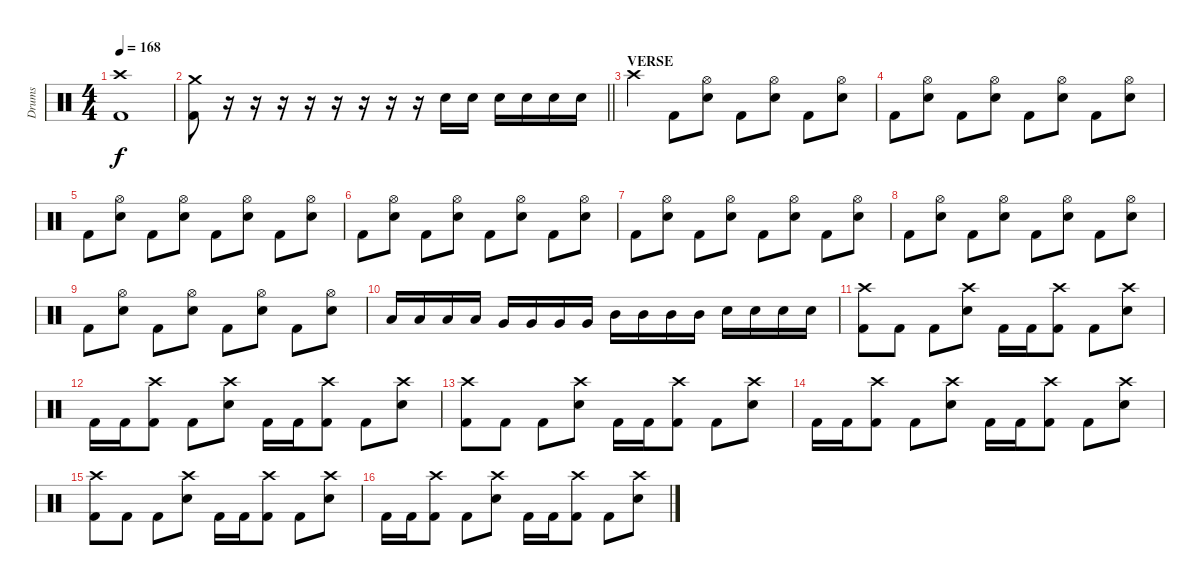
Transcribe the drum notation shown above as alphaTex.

\track ("Drums" "Drums") {instrument percussion}
\staff {score}
\articulation defaults
\ts (4 4)
\tempo 168
\clef neutral
\ks c
("Crash high (hit)" "Kick (hit) 2").1{dy f} |
\barLineRight lightlight
("Crash medium (hit)" "Kick (hit) 2").8 r.16 r.16 r.16 r.16 r.16 r.16 r.16 r.16 "Snare (hit) 2".16 "Snare (hit) 2".16 "Snare (hit) 2".16 "Snare (hit) 2".16 "Snare (hit) 2".16 "Snare (hit) 2".16 |
\section ("" "VERSE")
"Crash high (hit)".4 "Kick (hit) 2".8 ("Hi-Hat (open)" "Snare (hit) 2").8 "Kick (hit) 2".8 ("Hi-Hat (open)" "Snare (hit) 2").8 "Kick (hit) 2".8 ("Hi-Hat (open)" "Snare (hit) 2").8 |
"Kick (hit) 2".8 ("Hi-Hat (open)" "Snare (hit) 2").8 "Kick (hit) 2".8 ("Hi-Hat (open)" "Snare (hit) 2").8 "Kick (hit) 2".8 ("Hi-Hat (open)" "Snare (hit) 2").8 "Kick (hit) 2".8 ("Hi-Hat (open)" "Snare (hit) 2").8 |
"Kick (hit) 2".8 ("Hi-Hat (open)" "Snare (hit) 2").8 "Kick (hit) 2".8 ("Hi-Hat (open)" "Snare (hit) 2").8 "Kick (hit) 2".8 ("Hi-Hat (open)" "Snare (hit) 2").8 "Kick (hit) 2".8 ("Hi-Hat (open)" "Snare (hit) 2").8 |
"Kick (hit) 2".8 ("Hi-Hat (open)" "Snare (hit) 2").8 "Kick (hit) 2".8 ("Hi-Hat (open)" "Snare (hit) 2").8 "Kick (hit) 2".8 ("Hi-Hat (open)" "Snare (hit) 2").8 "Kick (hit) 2".8 ("Hi-Hat (open)" "Snare (hit) 2").8 |
"Kick (hit) 2".8 ("Hi-Hat (open)" "Snare (hit) 2").8 "Kick (hit) 2".8 ("Hi-Hat (open)" "Snare (hit) 2").8 "Kick (hit) 2".8 ("Hi-Hat (open)" "Snare (hit) 2").8 "Kick (hit) 2".8 ("Hi-Hat (open)" "Snare (hit) 2").8 |
"Kick (hit) 2".8 ("Hi-Hat (open)" "Snare (hit) 2").8 "Kick (hit) 2".8 ("Hi-Hat (open)" "Snare (hit) 2").8 "Kick (hit) 2".8 ("Hi-Hat (open)" "Snare (hit) 2").8 "Kick (hit) 2".8 ("Hi-Hat (open)" "Snare (hit) 2").8 |
"Kick (hit) 2".8 ("Hi-Hat (open)" "Snare (hit) 2").8 "Kick (hit) 2".8 ("Hi-Hat (open)" "Snare (hit) 2").8 "Kick (hit) 2".8 ("Hi-Hat (open)" "Snare (hit) 2").8 "Kick (hit) 2".8 ("Hi-Hat (open)" "Snare (hit) 2").8 |
"Low Tom (hit)".16 "Low Tom (hit)".16 "Low Tom (hit)".16 "Low Tom (hit)".16 "Very Low Tom (hit)".16 "Very Low Tom (hit)".16 "Very Low Tom (hit)".16 "Very Low Tom (hit)".16 "Mid Tom (hit)".16 "Mid Tom (hit)".16 "Mid Tom (hit)".16 "Mid Tom (hit)".16 "Snare (hit) 2".16 "Snare (hit) 2".16 "Snare (hit) 2".16 "Snare (hit) 2".16 |
("Crash high (hit)" "Kick (hit) 2").8 "Kick (hit) 2".8 "Kick (hit) 2".8 ("Crash high (hit)" "Snare (hit) 2").8 "Kick (hit) 2".16 "Kick (hit) 2".16 ("Crash high (hit)" "Kick (hit) 2").8 "Kick (hit) 2".8 ("Crash high (hit)" "Snare (hit) 2").8 |
"Kick (hit) 2".16 "Kick (hit) 2".16 ("Crash high (hit)" "Kick (hit) 2").8 "Kick (hit) 2".8 ("Crash high (hit)" "Snare (hit) 2").8 "Kick (hit) 2".16 "Kick (hit) 2".16 ("Crash high (hit)" "Kick (hit) 2").8 "Kick (hit) 2".8 ("Crash high (hit)" "Snare (hit) 2").8 |
("Crash high (hit)" "Kick (hit) 2").8 "Kick (hit) 2".8 "Kick (hit) 2".8 ("Crash high (hit)" "Snare (hit) 2").8 "Kick (hit) 2".16 "Kick (hit) 2".16 ("Crash high (hit)" "Kick (hit) 2").8 "Kick (hit) 2".8 ("Crash high (hit)" "Snare (hit) 2").8 |
"Kick (hit) 2".16 "Kick (hit) 2".16 ("Crash high (hit)" "Kick (hit) 2").8 "Kick (hit) 2".8 ("Crash high (hit)" "Snare (hit) 2").8 "Kick (hit) 2".16 "Kick (hit) 2".16 ("Crash high (hit)" "Kick (hit) 2").8 "Kick (hit) 2".8 ("Crash high (hit)" "Snare (hit) 2").8 |
("Crash high (hit)" "Kick (hit) 2").8 "Kick (hit) 2".8 "Kick (hit) 2".8 ("Crash high (hit)" "Snare (hit) 2").8 "Kick (hit) 2".16 "Kick (hit) 2".16 ("Crash high (hit)" "Kick (hit) 2").8 "Kick (hit) 2".8 ("Crash high (hit)" "Snare (hit) 2").8 |
"Kick (hit) 2".16 "Kick (hit) 2".16 ("Crash high (hit)" "Kick (hit) 2").8 "Kick (hit) 2".8 ("Crash high (hit)" "Snare (hit) 2").8 "Kick (hit) 2".16 "Kick (hit) 2".16 ("Crash high (hit)" "Kick (hit) 2").8 "Kick (hit) 2".8 ("Crash high (hit)" "Snare (hit) 2").8
